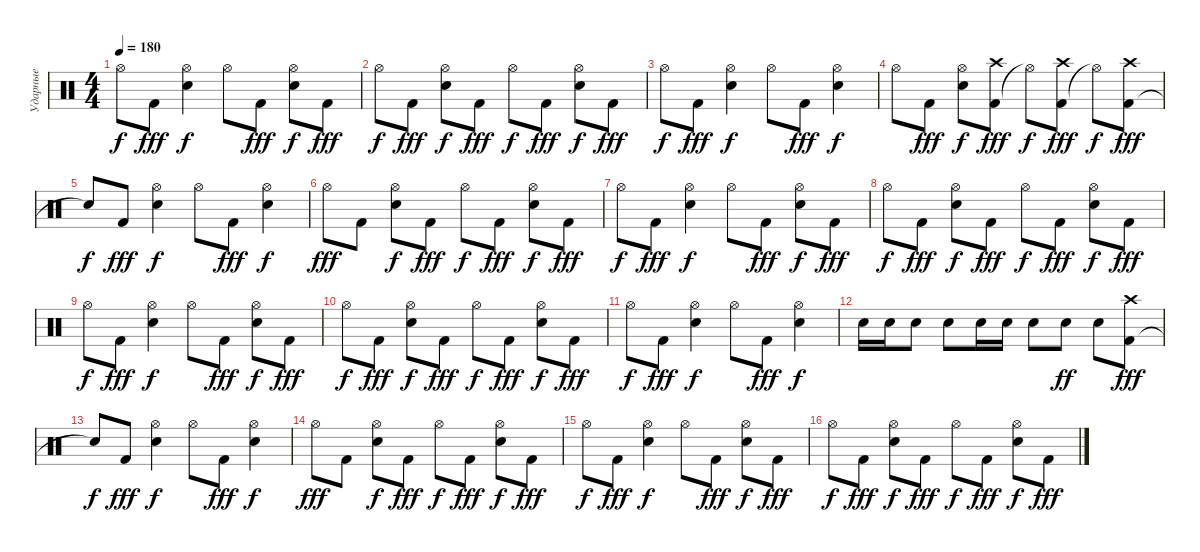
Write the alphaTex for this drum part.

\track ("Ударные" "Ударные") {instrument percussion}
\staff
\articulation defaults
\ts (4 4)
\tempo 180
\clef neutral
\ks c "Hi-Hat (open)".8{dy f} "Kick (hit) 2".8{dy fff}
("Snare (hit) 2" "Hi-Hat (open)").4{dy f} "Hi-Hat (open)".8 "Kick (hit) 2".8{dy fff} ("Snare (hit) 2" "Hi-Hat (open)").8{dy f} "Kick (hit) 2".8{dy fff} |
"Hi-Hat (open)".8{dy f} "Kick (hit) 2".8{dy fff} ("Snare (hit) 2" "Hi-Hat (open)").8{dy f} "Kick (hit) 2".8{dy fff} "Hi-Hat (open)".8{dy f} "Kick (hit) 2".8{dy fff} ("Snare (hit) 2" "Hi-Hat (open)").8{dy f} "Kick (hit) 2".8{dy fff} |
"Hi-Hat (open)".8{dy f} "Kick (hit) 2".8{dy fff} ("Snare (hit) 2" "Hi-Hat (open)").4{dy f} "Hi-Hat (open)".8 "Kick (hit) 2".8{dy fff} ("Snare (hit) 2" "Hi-Hat (open)").4{dy f} |
"Hi-Hat (open)".8 "Kick (hit) 2".8{dy fff} ("Snare (hit) 2" "Hi-Hat (open)").8{dy f} ("Kick (hit) 2" "Crash high (hit)").8{dy fff} "Hi-Hat (open)"{t}.8{dy f} ("Kick (hit) 2" "Crash high (hit)").8{dy fff} "Hi-Hat (open)"{t}.8{dy f} ("Kick (hit) 2" "Crash high (hit)").8{dy fff} |
"Snare (hit)"{t}.8{dy f} "Kick (hit) 2".8{dy fff} ("Snare (hit) 2" "Hi-Hat (open)").4{dy f} "Hi-Hat (open)".8 "Kick (hit) 2".8{dy fff} ("Snare (hit) 2" "Hi-Hat (open)").4{dy f} |
"Hi-Hat (open)".8{dy fff} "Kick (hit) 2".8 ("Snare (hit) 2" "Hi-Hat (open)").8{dy f} "Kick (hit) 2".8{dy fff} "Hi-Hat (open)".8{dy f} "Kick (hit) 2".8{dy fff} ("Snare (hit) 2" "Hi-Hat (open)").8{dy f} "Kick (hit) 2".8{dy fff} |
"Hi-Hat (open)".8{dy f} "Kick (hit) 2".8{dy fff} ("Snare (hit) 2" "Hi-Hat (open)").4{dy f} "Hi-Hat (open)".8 "Kick (hit) 2".8{dy fff} ("Snare (hit) 2" "Hi-Hat (open)").8{dy f} "Kick (hit) 2".8{dy fff} |
"Hi-Hat (open)".8{dy f} "Kick (hit) 2".8{dy fff} ("Snare (hit) 2" "Hi-Hat (open)").8{dy f} "Kick (hit) 2".8{dy fff} "Hi-Hat (open)".8{dy f} "Kick (hit) 2".8{dy fff} ("Snare (hit) 2" "Hi-Hat (open)").8{dy f} "Kick (hit) 2".8{dy fff} |
"Hi-Hat (open)".8{dy f} "Kick (hit) 2".8{dy fff} ("Snare (hit) 2" "Hi-Hat (open)").4{dy f} "Hi-Hat (open)".8 "Kick (hit) 2".8{dy fff} ("Snare (hit) 2" "Hi-Hat (open)").8{dy f} "Kick (hit) 2".8{dy fff} |
"Hi-Hat (open)".8{dy f} "Kick (hit) 2".8{dy fff} ("Snare (hit) 2" "Hi-Hat (open)").8{dy f} "Kick (hit) 2".8{dy fff} "Hi-Hat (open)".8{dy f} "Kick (hit) 2".8{dy fff} ("Snare (hit) 2" "Hi-Hat (open)").8{dy f} "Kick (hit) 2".8{dy fff} |
"Hi-Hat (open)".8{dy f} "Kick (hit) 2".8{dy fff} ("Snare (hit) 2" "Hi-Hat (open)").4{dy f} "Hi-Hat (open)".8 "Kick (hit) 2".8{dy fff} ("Snare (hit) 2" "Hi-Hat (open)").4{dy f} |
"Snare (hit) 2".16 "Snare (hit) 2".16 "Snare (hit) 2".8 "Snare (hit) 2".8 "Electric Snare (hit)".16 "Electric Snare (hit)".16 "Electric Snare (hit)".8 "Electric Snare (hit)".8{dy ff} "Electric Snare (hit)".8 ("Kick (hit) 2" "Crash high (hit)").8{dy fff} |
"Snare (hit)"{t}.8{dy f} "Kick (hit) 2".8{dy fff} ("Snare (hit) 2" "Hi-Hat (open)").4{dy f} "Hi-Hat (open)".8 "Kick (hit) 2".8{dy fff} ("Snare (hit) 2" "Hi-Hat (open)").4{dy f} |
"Hi-Hat (open)".8{dy fff} "Kick (hit) 2".8 ("Snare (hit) 2" "Hi-Hat (open)").8{dy f} "Kick (hit) 2".8{dy fff} "Hi-Hat (open)".8{dy f} "Kick (hit) 2".8{dy fff} ("Snare (hit) 2" "Hi-Hat (open)").8{dy f} "Kick (hit) 2".8{dy fff} |
"Hi-Hat (open)".8{dy f} "Kick (hit) 2".8{dy fff} ("Snare (hit) 2" "Hi-Hat (open)").4{dy f} "Hi-Hat (open)".8 "Kick (hit) 2".8{dy fff} ("Snare (hit) 2" "Hi-Hat (open)").8{dy f} "Kick (hit) 2".8{dy fff} |
"Hi-Hat (open)".8{dy f} "Kick (hit) 2".8{dy fff} ("Snare (hit) 2" "Hi-Hat (open)").8{dy f} "Kick (hit) 2".8{dy fff} "Hi-Hat (open)".8{dy f} "Kick (hit) 2".8{dy fff} ("Snare (hit) 2" "Hi-Hat (open)").8{dy f} "Kick (hit) 2".8{dy fff}
